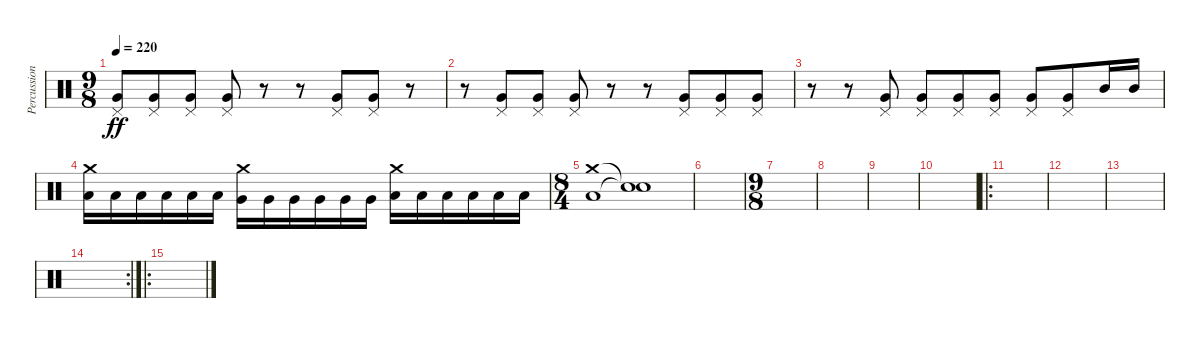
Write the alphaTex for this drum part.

\track ("Percussion" "Percussion") {instrument percussion}
\staff {score}
\articulation defaults
\ts (9 8)
\tempo 220
\clef neutral
\ks c
("Pedal Hi-Hat (hit)" "Very Low Tom (hit)").8{dy ff} ("Pedal Hi-Hat (hit)" "Very Low Tom (hit)").8 ("Pedal Hi-Hat (hit)" "Very Low Tom (hit)").8 ("Pedal Hi-Hat (hit)" "Very Low Tom (hit)").8 r.8 r.8 ("Pedal Hi-Hat (hit)" "Very Low Tom (hit)").8 ("Pedal Hi-Hat (hit)" "Very Low Tom (hit)").8 r.8 |
r.8 ("Pedal Hi-Hat (hit)" "Very Low Tom (hit)").8 ("Pedal Hi-Hat (hit)" "Very Low Tom (hit)").8 ("Pedal Hi-Hat (hit)" "Very Low Tom (hit)").8 r.8 r.8 ("Pedal Hi-Hat (hit)" "Very Low Tom (hit)").8 ("Pedal Hi-Hat (hit)" "Very Low Tom (hit)").8 ("Pedal Hi-Hat (hit)" "Very Low Tom (hit)").8 |
r.8 r.8 ("Pedal Hi-Hat (hit)" "Very Low Tom (hit)").8 ("Pedal Hi-Hat (hit)" "Very Low Tom (hit)").8 ("Pedal Hi-Hat (hit)" "Very Low Tom (hit)").8 ("Pedal Hi-Hat (hit)" "Very Low Tom (hit)").8 ("Pedal Hi-Hat (hit)" "Very Low Tom (hit)").8 ("Pedal Hi-Hat (hit)" "Very Low Tom (hit)").8 "Mid Tom (hit)".16 "Mid Tom (hit)".16 |
("Crash medium (hit)" "Low Tom (hit)").16 "Low Tom (hit)".16 "Low Tom (hit)".16 "Low Tom (hit)".16 "Low Tom (hit)".16 "Low Tom (hit)".16 ("Crash medium (hit)" "Very Low Tom (hit)").16 "Very Low Tom (hit)".16 "Very Low Tom (hit)".16 "Very Low Tom (hit)".16 "Very Low Tom (hit)".16 "Very Low Tom (hit)".16 ("Crash medium (hit)" "Low Floor Tom (hit)").16 "Low Floor Tom (hit)".16 "Low Floor Tom (hit)".16 "Low Floor Tom (hit)".16 "Low Floor Tom (hit)".16 "Low Floor Tom (hit)".16 |
\ts (8 4)
("Crash medium (hit)" "Low Floor Tom (hit)").1 ("Snare (hit)"{t} "Snare (hit)"{t}).1 |
|
\ts (9 8)
|
|
|
|
\ro
|
|
|
\rc 2
|
\ro
